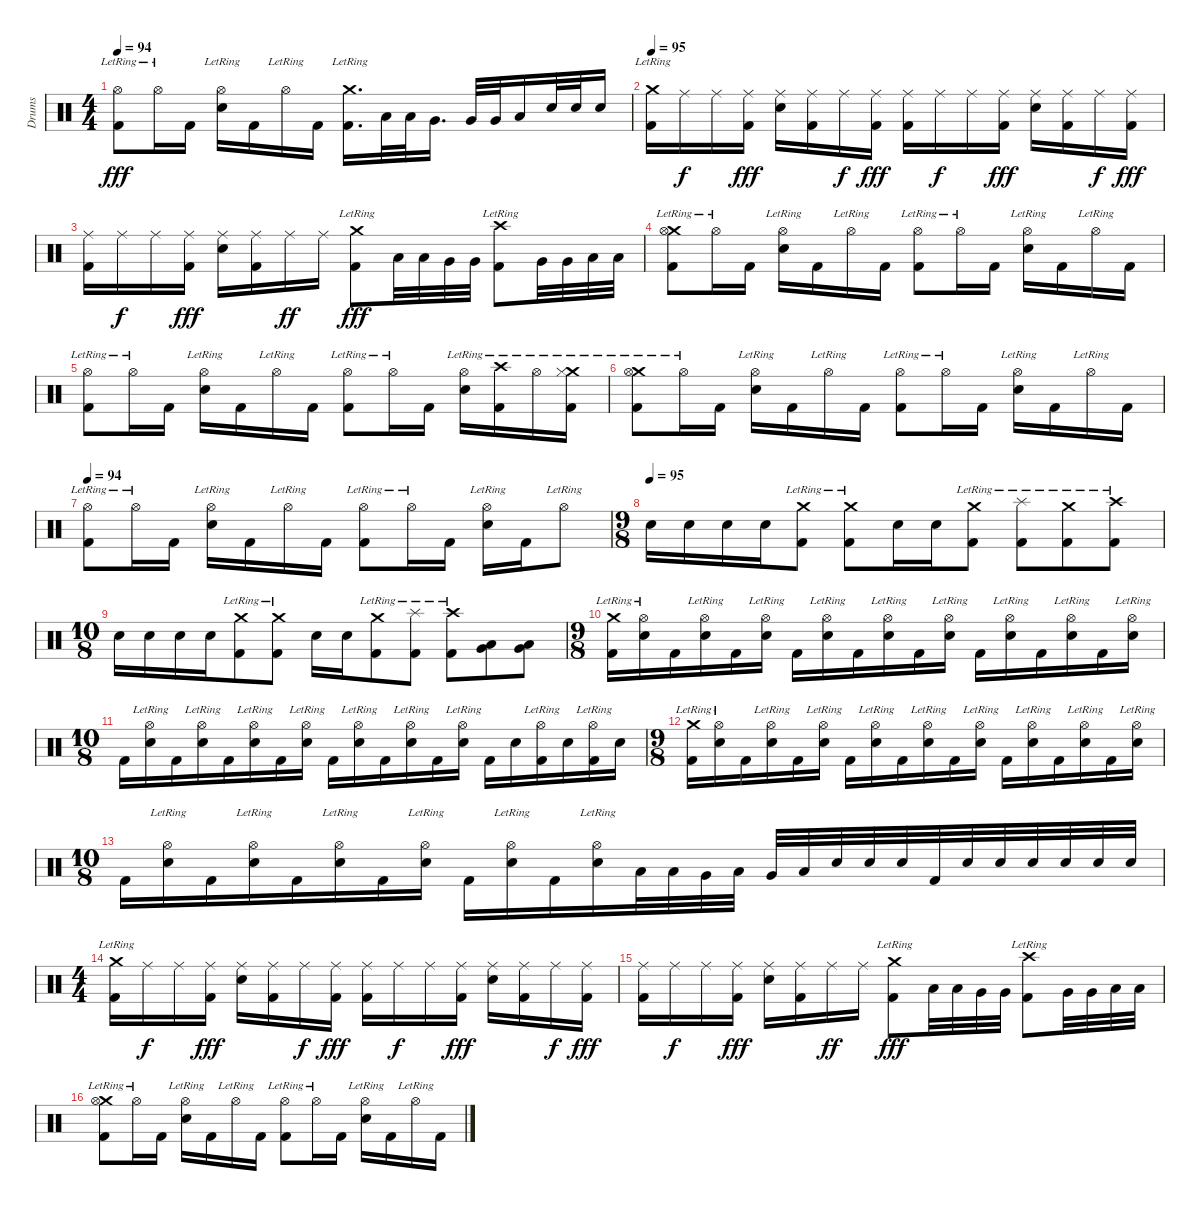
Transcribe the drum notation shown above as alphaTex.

\track ("Drums" "Drums") {instrument percussion}
\staff {score}
\articulation defaults
\ts (4 4)
\tempo 94
\clef neutral
\ks c
("Hi-Hat (open)"{lr} "Kick (hit) 2").8{dy fff} "Hi-Hat (open)"{lr}.16 "Kick (hit) 2".16 ("Hi-Hat (open)"{lr} "Electric Snare (hit)").16 "Kick (hit) 2".16 "Hi-Hat (open)"{lr}.16 "Kick (hit) 2".16 ("Crash medium (hit)"{lr} "Kick (hit) 2").16{d} "Low Tom (hit)".32 "Low Tom (hit)".32 "Very Low Tom (hit)".16{d} "Very Low Tom (hit)".32 "Very Low Tom (hit)".32 "Low Floor Tom (hit)".16 "Electric Snare (hit)".32 "Electric Snare (hit)".32 "Electric Snare (hit)".16 |
\tempo 95
("Crash medium (hit)"{lr} "Kick (hit) 2").16 "Ride (middle)".16{dy f} "Ride (middle)".16 ("Ride (middle)" "Kick (hit) 2").16{dy fff} ("Ride (middle)" "Electric Snare (hit)").16 ("Ride (middle)" "Kick (hit) 2").16 "Ride (middle)".16{dy f} ("Ride (middle)" "Kick (hit) 2").16{dy fff} ("Ride (middle)" "Kick (hit) 2").16 "Ride (middle)".16{dy f} "Ride (middle)".16 ("Ride (middle)" "Kick (hit) 2").16{dy fff} ("Ride (middle)" "Electric Snare (hit)").16 ("Ride (middle)" "Kick (hit) 2").16 "Ride (middle)".16{dy f} ("Ride (middle)" "Kick (hit) 2").16{dy fff} |
("Ride (middle)" "Kick (hit) 2").16 "Ride (middle)".16{dy f} "Ride (middle)".16 ("Ride (middle)" "Kick (hit) 2").16{dy fff} ("Ride (middle)" "Electric Snare (hit)").16 ("Ride (middle)" "Kick (hit) 2").16 "Ride (middle)".16{dy ff} "Ride (middle)".16 ("Crash medium (hit)"{lr} "Kick (hit) 2").8{dy fff} "Low Tom (hit)".32 "Low Tom (hit)".32 "Very Low Tom (hit)".32 "Very Low Tom (hit)".32 ("Crash high (hit)"{lr} "Kick (hit) 2").8 "Very Low Tom (hit)".32 "Very Low Tom (hit)".32 "Low Floor Tom (hit)".32 "Low Floor Tom (hit)".32 |
("Crash medium (hit)"{lr} "Hi-Hat (open)"{lr} "Kick (hit) 2").8 "Hi-Hat (open)"{lr}.16 "Kick (hit) 2".16 ("Hi-Hat (open)"{lr} "Electric Snare (hit)").16 "Kick (hit) 2".16 "Hi-Hat (open)"{lr}.16 "Kick (hit) 2".16 ("Hi-Hat (open)"{lr} "Kick (hit) 2").8 "Hi-Hat (open)"{lr}.16 "Kick (hit) 2".16 ("Hi-Hat (open)"{lr} "Electric Snare (hit)").16 "Kick (hit) 2".16 "Hi-Hat (open)"{lr}.16 "Kick (hit) 2".16 |
("Hi-Hat (open)"{lr} "Kick (hit) 2").8 "Hi-Hat (open)"{lr}.16 "Kick (hit) 2".16 ("Hi-Hat (open)"{lr} "Electric Snare (hit)").16 "Kick (hit) 2".16 "Hi-Hat (open)"{lr}.16 "Kick (hit) 2".16 ("Hi-Hat (open)"{lr} "Kick (hit) 2").8 "Hi-Hat (open)"{lr}.16 "Kick (hit) 2".16 ("Hi-Hat (open)"{lr} "Electric Snare (hit)").16 ("Crash high (hit)"{lr} "Kick (hit) 2").16 "Hi-Hat (open)"{lr}.16 ("Crash medium (hit)"{lr} "Hi-Hat (closed)" "Kick (hit) 2").16 |
("Crash medium (hit)"{lr} "Hi-Hat (open)"{lr} "Kick (hit) 2").8 "Hi-Hat (open)"{lr}.16 "Kick (hit) 2".16 ("Hi-Hat (open)"{lr} "Electric Snare (hit)").16 "Kick (hit) 2".16 "Hi-Hat (open)"{lr}.16 "Kick (hit) 2".16 ("Hi-Hat (open)"{lr} "Kick (hit) 2").8 "Hi-Hat (open)"{lr}.16 "Kick (hit) 2".16 ("Hi-Hat (open)"{lr} "Electric Snare (hit)").16 "Kick (hit) 2".16 "Hi-Hat (open)"{lr}.16 "Kick (hit) 2".16 |
\tempo 94
("Hi-Hat (open)"{lr} "Kick (hit) 2").8 "Hi-Hat (open)"{lr}.16 "Kick (hit) 2".16 ("Hi-Hat (open)"{lr} "Electric Snare (hit)").16 "Kick (hit) 2".16 "Hi-Hat (open)"{lr}.16 "Kick (hit) 2".16 ("Hi-Hat (open)"{lr} "Kick (hit) 2").8 "Hi-Hat (open)"{lr}.16 "Kick (hit) 2".16 ("Hi-Hat (open)"{lr} "Electric Snare (hit)").16 "Kick (hit) 2".16 "Hi-Hat (open)"{lr}.8 |
\ts (9 8)
\tempo (95)
"Electric Snare (hit)".16 "Electric Snare (hit)".16 "Electric Snare (hit)".16 "Electric Snare (hit)".16 ("Crash medium (hit)"{lr} "Kick (hit) 2").8 ("Crash medium (hit)"{lr} "Kick (hit) 2").8 "Electric Snare (hit)".16 "Electric Snare (hit)".16 ("Crash medium (hit)"{lr} "Kick (hit) 2").8 ("Splash (hit)"{lr} "Kick (hit) 2").8 ("Crash medium (hit)"{lr} "Kick (hit) 2").8 ("Crash high (hit)"{lr} "Kick (hit) 2").8 |
\ts (10 8)
"Electric Snare (hit)".16 "Electric Snare (hit)".16 "Electric Snare (hit)".16 "Electric Snare (hit)".16 ("Crash medium (hit)"{lr} "Kick (hit) 2").8 ("Crash medium (hit)"{lr} "Kick (hit) 2").8 "Electric Snare (hit)".16 "Electric Snare (hit)".16 ("Crash medium (hit)"{lr} "Kick (hit) 2").8 ("Splash (hit)"{lr} "Kick (hit) 2").8 ("Crash high (hit)"{lr} "Kick (hit) 2").8 ("Very Low Tom (hit)" "Low Floor Tom (hit)").8 ("Very Low Tom (hit)" "Low Floor Tom (hit)").8 |
\ts (9 8)
("Crash medium (hit)"{lr} "Kick (hit) 2").16 ("Hi-Hat (open)"{lr} "Electric Snare (hit)").16 "Kick (hit) 2".16 ("Hi-Hat (open)"{lr} "Electric Snare (hit)").16 "Kick (hit) 2".16 ("Hi-Hat (open)"{lr} "Electric Snare (hit)").16 "Kick (hit) 2".16 ("Hi-Hat (open)"{lr} "Electric Snare (hit)").16 "Kick (hit) 2".16 ("Hi-Hat (open)"{lr} "Electric Snare (hit)").16 "Kick (hit) 2".16 ("Hi-Hat (open)"{lr} "Electric Snare (hit)").16 "Kick (hit) 2".16 ("Hi-Hat (open)"{lr} "Electric Snare (hit)").16 "Kick (hit) 2".16 ("Hi-Hat (open)"{lr} "Electric Snare (hit)").16 "Kick (hit) 2".16 ("Hi-Hat (open)"{lr} "Electric Snare (hit)").16 |
\ts (10 8)
"Kick (hit) 2".16 ("Hi-Hat (open)"{lr} "Electric Snare (hit)").16 "Kick (hit) 2".16 ("Hi-Hat (open)"{lr} "Electric Snare (hit)").16 "Kick (hit) 2".16 ("Hi-Hat (open)"{lr} "Electric Snare (hit)").16 "Kick (hit) 2".16 ("Hi-Hat (open)"{lr} "Electric Snare (hit)").16 "Kick (hit) 2".16 ("Hi-Hat (open)"{lr} "Electric Snare (hit)").16 "Kick (hit) 2".16 ("Hi-Hat (open)"{lr} "Electric Snare (hit)").16 "Kick (hit) 2".16 ("Hi-Hat (open)"{lr} "Electric Snare (hit)").16 "Kick (hit) 2".16 "Electric Snare (hit)".16 ("Hi-Hat (open)"{lr} "Kick (hit) 2").16 "Electric Snare (hit)".16 ("Hi-Hat (open)"{lr} "Kick (hit) 2").16 "Electric Snare (hit)".16 |
\ts (9 8)
("Crash medium (hit)"{lr} "Kick (hit) 2").16 ("Hi-Hat (open)"{lr} "Electric Snare (hit)").16 "Kick (hit) 2".16 ("Hi-Hat (open)"{lr} "Electric Snare (hit)").16 "Kick (hit) 2".16 ("Hi-Hat (open)"{lr} "Electric Snare (hit)").16 "Kick (hit) 2".16 ("Hi-Hat (open)"{lr} "Electric Snare (hit)").16 "Kick (hit) 2".16 ("Hi-Hat (open)"{lr} "Electric Snare (hit)").16 "Kick (hit) 2".16 ("Hi-Hat (open)"{lr} "Electric Snare (hit)").16 "Kick (hit) 2".16 ("Hi-Hat (open)"{lr} "Electric Snare (hit)").16 "Kick (hit) 2".16 ("Hi-Hat (open)"{lr} "Electric Snare (hit)").16 "Kick (hit) 2".16 ("Hi-Hat (open)"{lr} "Electric Snare (hit)").16 |
\ts (10 8)
"Kick (hit) 2".16 ("Hi-Hat (open)"{lr} "Electric Snare (hit)").16 "Kick (hit) 2".16 ("Hi-Hat (open)"{lr} "Electric Snare (hit)").16 "Kick (hit) 2".16 ("Hi-Hat (open)"{lr} "Electric Snare (hit)").16 "Kick (hit) 2".16 ("Hi-Hat (open)"{lr} "Electric Snare (hit)").16 "Kick (hit) 2".16 ("Hi-Hat (open)"{lr} "Electric Snare (hit)").16 "Kick (hit) 2".16 ("Hi-Hat (open)"{lr} "Electric Snare (hit)").16 "Low Tom (hit)".32 "Low Tom (hit)".32 "Very Low Tom (hit)".32 "Low Floor Tom (hit)".32 "Very Low Tom (hit)".32 "Low Floor Tom (hit)".32 "Electric Snare (hit)".32 "Electric Snare (hit)".32 "Electric Snare (hit)".32 "Kick (hit) 2".32 "Electric Snare (hit)".32 "Electric Snare (hit)".32 "Electric Snare (hit)".32 "Electric Snare (hit)".32 "Electric Snare (hit)".32 "Electric Snare (hit)".32 |
\ts (4 4)
("Crash medium (hit)"{lr} "Kick (hit) 2").16 "Ride (middle)".16{dy f} "Ride (middle)".16 ("Ride (middle)" "Kick (hit) 2").16{dy fff} ("Ride (middle)" "Electric Snare (hit)").16 ("Ride (middle)" "Kick (hit) 2").16 "Ride (middle)".16{dy f} ("Ride (middle)" "Kick (hit) 2").16{dy fff} ("Ride (middle)" "Kick (hit) 2").16 "Ride (middle)".16{dy f} "Ride (middle)".16 ("Ride (middle)" "Kick (hit) 2").16{dy fff} ("Ride (middle)" "Electric Snare (hit)").16 ("Ride (middle)" "Kick (hit) 2").16 "Ride (middle)".16{dy f} ("Ride (middle)" "Kick (hit) 2").16{dy fff} |
("Ride (middle)" "Kick (hit) 2").16 "Ride (middle)".16{dy f} "Ride (middle)".16 ("Ride (middle)" "Kick (hit) 2").16{dy fff} ("Ride (middle)" "Electric Snare (hit)").16 ("Ride (middle)" "Kick (hit) 2").16 "Ride (middle)".16{dy ff} "Ride (middle)".16 ("Crash medium (hit)"{lr} "Kick (hit) 2").8{dy fff} "Low Tom (hit)".32 "Low Tom (hit)".32 "Very Low Tom (hit)".32 "Very Low Tom (hit)".32 ("Crash high (hit)"{lr} "Kick (hit) 2").8 "Very Low Tom (hit)".32 "Very Low Tom (hit)".32 "Low Floor Tom (hit)".32 "Low Floor Tom (hit)".32 |
("Crash medium (hit)"{lr} "Hi-Hat (open)"{lr} "Kick (hit) 2").8 "Hi-Hat (open)"{lr}.16 "Kick (hit) 2".16 ("Hi-Hat (open)"{lr} "Electric Snare (hit)").16 "Kick (hit) 2".16 "Hi-Hat (open)"{lr}.16 "Kick (hit) 2".16 ("Hi-Hat (open)"{lr} "Kick (hit) 2").8 "Hi-Hat (open)"{lr}.16 "Kick (hit) 2".16 ("Hi-Hat (open)"{lr} "Electric Snare (hit)").16 "Kick (hit) 2".16 "Hi-Hat (open)"{lr}.16 "Kick (hit) 2".16
